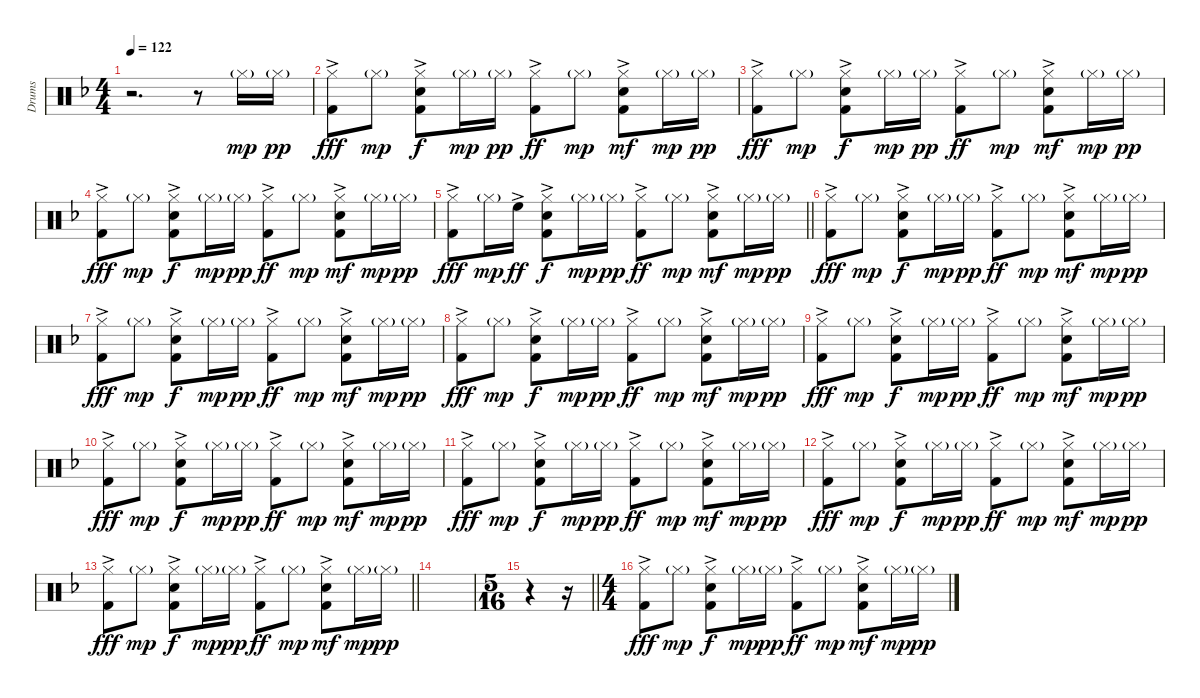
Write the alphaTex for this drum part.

\track ("Drums" "Drums") {instrument percussion}
\staff {score}
\articulation defaults
\ts (4 4)
\tempo 122
\clef neutral
\ks f
r.2{d dy pp} r.8 "Hi-Hat (closed)"{g}.16{dy mp} "Hi-Hat (closed)"{g}.16{dy pp} |
("Kick (hit) 2"{ac} "Hi-Hat (closed)").8{dy fff} "Hi-Hat (closed)"{g}.8{dy mp} ("Kick (hit) 2" "Snare (hit) 2"{ac} "Hi-Hat (closed)").8{dy f} "Hi-Hat (closed)"{g}.16{dy mp} "Hi-Hat (closed)"{g}.16{dy pp} ("Kick (hit) 2"{ac} "Hi-Hat (closed)").8{dy ff} "Hi-Hat (closed)"{g}.8{dy mp} ("Kick (hit) 2" "Snare (hit) 2"{ac} "Hi-Hat (closed)").8{dy mf} "Hi-Hat (closed)"{g}.16{dy mp} "Hi-Hat (closed)"{g}.16{dy pp} |
("Kick (hit) 2"{ac} "Hi-Hat (closed)").8{dy fff} "Hi-Hat (closed)"{g}.8{dy mp} ("Kick (hit) 2" "Snare (hit) 2"{ac} "Hi-Hat (closed)").8{dy f} "Hi-Hat (closed)"{g}.16{dy mp} "Hi-Hat (closed)"{g}.16{dy pp} ("Kick (hit) 2"{ac} "Hi-Hat (closed)").8{dy ff} "Hi-Hat (closed)"{g}.8{dy mp} ("Kick (hit) 2" "Snare (hit) 2"{ac} "Hi-Hat (closed)").8{dy mf} "Hi-Hat (closed)"{g}.16{dy mp} "Hi-Hat (closed)"{g}.16{dy pp} |
("Kick (hit) 2"{ac} "Hi-Hat (closed)").8{dy fff} "Hi-Hat (closed)"{g}.8{dy mp} ("Kick (hit) 2" "Snare (hit) 2"{ac} "Hi-Hat (closed)").8{dy f} "Hi-Hat (closed)"{g}.16{dy mp} "Hi-Hat (closed)"{g}.16{dy pp} ("Kick (hit) 2"{ac} "Hi-Hat (closed)").8{dy ff} "Hi-Hat (closed)"{g}.8{dy mp} ("Kick (hit) 2" "Snare (hit) 2"{ac} "Hi-Hat (closed)").8{dy mf} "Hi-Hat (closed)"{g}.16{dy mp} "Hi-Hat (closed)"{g}.16{dy pp} |
\barLineRight lightlight
("Kick (hit) 2"{ac} "Hi-Hat (closed)").8{dy fff} "Hi-Hat (closed)"{g}.16{dy mp} "High Floor Tom (hit)"{ac}.16{dy ff} ("Kick (hit) 2" "Snare (hit) 2"{ac} "Hi-Hat (closed)").8{dy f} "Hi-Hat (closed)"{g}.16{dy mp} "Hi-Hat (closed)"{g}.16{dy pp} ("Kick (hit) 2"{ac} "Hi-Hat (closed)").8{dy ff} "Hi-Hat (closed)"{g}.8{dy mp} ("Kick (hit) 2" "Snare (hit) 2"{ac} "Hi-Hat (closed)").8{dy mf} "Hi-Hat (closed)"{g}.16{dy mp} "Hi-Hat (closed)"{g}.16{dy pp} |
("Kick (hit) 2"{ac} "Hi-Hat (closed)").8{dy fff} "Hi-Hat (closed)"{g}.8{dy mp} ("Kick (hit) 2" "Snare (hit) 2"{ac} "Hi-Hat (closed)").8{dy f} "Hi-Hat (closed)"{g}.16{dy mp} "Hi-Hat (closed)"{g}.16{dy pp} ("Kick (hit) 2"{ac} "Hi-Hat (closed)").8{dy ff} "Hi-Hat (closed)"{g}.8{dy mp} ("Kick (hit) 2" "Snare (hit) 2"{ac} "Hi-Hat (closed)").8{dy mf} "Hi-Hat (closed)"{g}.16{dy mp} "Hi-Hat (closed)"{g}.16{dy pp} |
("Kick (hit) 2"{ac} "Hi-Hat (closed)").8{dy fff} "Hi-Hat (closed)"{g}.8{dy mp} ("Kick (hit) 2" "Snare (hit) 2"{ac} "Hi-Hat (closed)").8{dy f} "Hi-Hat (closed)"{g}.16{dy mp} "Hi-Hat (closed)"{g}.16{dy pp} ("Kick (hit) 2"{ac} "Hi-Hat (closed)").8{dy ff} "Hi-Hat (closed)"{g}.8{dy mp} ("Kick (hit) 2" "Snare (hit) 2"{ac} "Hi-Hat (closed)").8{dy mf} "Hi-Hat (closed)"{g}.16{dy mp} "Hi-Hat (closed)"{g}.16{dy pp} |
("Kick (hit) 2"{ac} "Hi-Hat (closed)").8{dy fff} "Hi-Hat (closed)"{g}.8{dy mp} ("Kick (hit) 2" "Snare (hit) 2"{ac} "Hi-Hat (closed)").8{dy f} "Hi-Hat (closed)"{g}.16{dy mp} "Hi-Hat (closed)"{g}.16{dy pp} ("Kick (hit) 2"{ac} "Hi-Hat (closed)").8{dy ff} "Hi-Hat (closed)"{g}.8{dy mp} ("Kick (hit) 2" "Snare (hit) 2"{ac} "Hi-Hat (closed)").8{dy mf} "Hi-Hat (closed)"{g}.16{dy mp} "Hi-Hat (closed)"{g}.16{dy pp} |
("Kick (hit) 2"{ac} "Hi-Hat (closed)").8{dy fff} "Hi-Hat (closed)"{g}.8{dy mp} ("Kick (hit) 2" "Snare (hit) 2"{ac} "Hi-Hat (closed)").8{dy f} "Hi-Hat (closed)"{g}.16{dy mp} "Hi-Hat (closed)"{g}.16{dy pp} ("Kick (hit) 2"{ac} "Hi-Hat (closed)").8{dy ff} "Hi-Hat (closed)"{g}.8{dy mp} ("Kick (hit) 2" "Snare (hit) 2"{ac} "Hi-Hat (closed)").8{dy mf} "Hi-Hat (closed)"{g}.16{dy mp} "Hi-Hat (closed)"{g}.16{dy pp} |
("Kick (hit) 2"{ac} "Hi-Hat (closed)").8{dy fff} "Hi-Hat (closed)"{g}.8{dy mp} ("Kick (hit) 2" "Snare (hit) 2"{ac} "Hi-Hat (closed)").8{dy f} "Hi-Hat (closed)"{g}.16{dy mp} "Hi-Hat (closed)"{g}.16{dy pp} ("Kick (hit) 2"{ac} "Hi-Hat (closed)").8{dy ff} "Hi-Hat (closed)"{g}.8{dy mp} ("Kick (hit) 2" "Snare (hit) 2"{ac} "Hi-Hat (closed)").8{dy mf} "Hi-Hat (closed)"{g}.16{dy mp} "Hi-Hat (closed)"{g}.16{dy pp} |
("Kick (hit) 2"{ac} "Hi-Hat (closed)").8{dy fff} "Hi-Hat (closed)"{g}.8{dy mp} ("Kick (hit) 2" "Snare (hit) 2"{ac} "Hi-Hat (closed)").8{dy f} "Hi-Hat (closed)"{g}.16{dy mp} "Hi-Hat (closed)"{g}.16{dy pp} ("Kick (hit) 2"{ac} "Hi-Hat (closed)").8{dy ff} "Hi-Hat (closed)"{g}.8{dy mp} ("Kick (hit) 2" "Snare (hit) 2"{ac} "Hi-Hat (closed)").8{dy mf} "Hi-Hat (closed)"{g}.16{dy mp} "Hi-Hat (closed)"{g}.16{dy pp} |
("Kick (hit) 2"{ac} "Hi-Hat (closed)").8{dy fff} "Hi-Hat (closed)"{g}.8{dy mp} ("Kick (hit) 2" "Snare (hit) 2"{ac} "Hi-Hat (closed)").8{dy f} "Hi-Hat (closed)"{g}.16{dy mp} "Hi-Hat (closed)"{g}.16{dy pp} ("Kick (hit) 2"{ac} "Hi-Hat (closed)").8{dy ff} "Hi-Hat (closed)"{g}.8{dy mp} ("Kick (hit) 2" "Snare (hit) 2"{ac} "Hi-Hat (closed)").8{dy mf} "Hi-Hat (closed)"{g}.16{dy mp} "Hi-Hat (closed)"{g}.16{dy pp} |
\barLineRight lightlight
("Kick (hit) 2"{ac} "Hi-Hat (closed)").8{dy fff} "Hi-Hat (closed)"{g}.8{dy mp} ("Kick (hit) 2" "Snare (hit) 2"{ac} "Hi-Hat (closed)").8{dy f} "Hi-Hat (closed)"{g}.16{dy mp} "Hi-Hat (closed)"{g}.16{dy pp} ("Kick (hit) 2"{ac} "Hi-Hat (closed)").8{dy ff} "Hi-Hat (closed)"{g}.8{dy mp} ("Kick (hit) 2" "Snare (hit) 2"{ac} "Hi-Hat (closed)").8{dy mf} "Hi-Hat (closed)"{g}.16{dy mp} "Hi-Hat (closed)"{g}.16{dy pp} |
|
\ts (5 16)
\barLineRight lightlight
r.4 r.16 |
\ts (4 4)
("Kick (hit) 2"{ac} "Hi-Hat (closed)").8{dy fff} "Hi-Hat (closed)"{g}.8{dy mp} ("Kick (hit) 2" "Snare (hit) 2"{ac} "Hi-Hat (closed)").8{dy f} "Hi-Hat (closed)"{g}.16{dy mp} "Hi-Hat (closed)"{g}.16{dy pp} ("Kick (hit) 2"{ac} "Hi-Hat (closed)").8{dy ff} "Hi-Hat (closed)"{g}.8{dy mp} ("Kick (hit) 2" "Snare (hit) 2"{ac} "Hi-Hat (closed)").8{dy mf} "Hi-Hat (closed)"{g}.16{dy mp} "Hi-Hat (closed)"{g}.16{dy pp}
